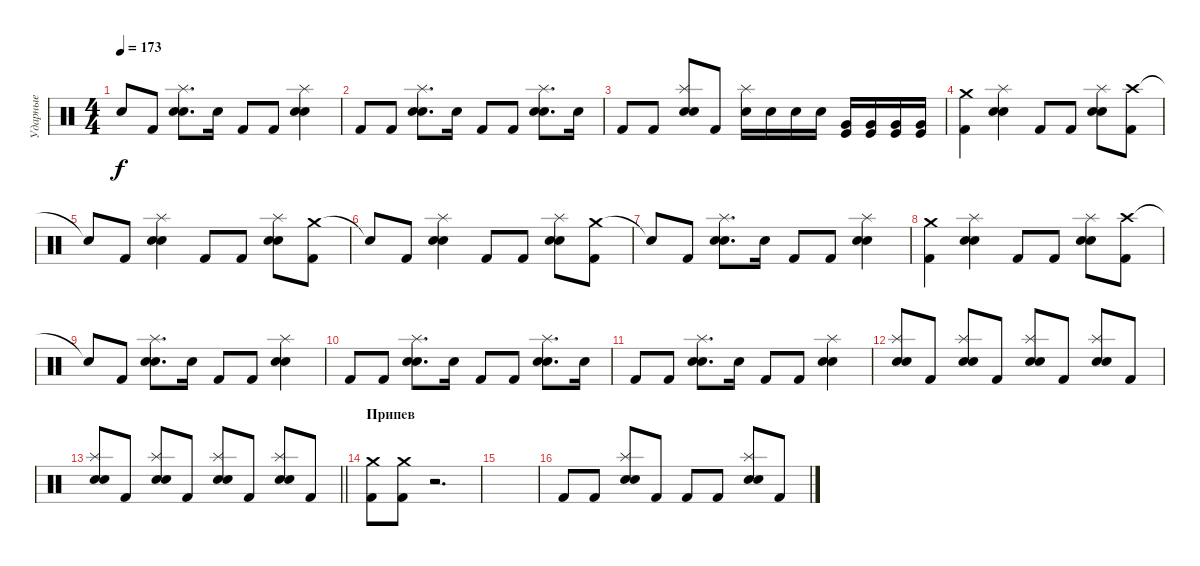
\track ("Ударные" "Ударные") {instrument percussion}
\staff {score}
\articulation defaults
\ts (4 4)
\tempo 173
\clef neutral
\ks c "Snare (hit)"{t}.8{dy f} "Kick (hit) 2".8
("Splash (hit)" "Electric Snare (hit)" "Snare (hit) 2").8{d} "Electric Snare (hit)".16 "Kick (hit) 2".8 "Kick (hit) 2".8 ("Splash (hit)" "Electric Snare (hit)" "Snare (hit) 2").4 |
"Kick (hit) 2".8 "Kick (hit) 2".8 ("Splash (hit)" "Electric Snare (hit)" "Snare (hit) 2").8{d} "Electric Snare (hit)".16 "Kick (hit) 2".8 "Kick (hit) 2".8 ("Splash (hit)" "Electric Snare (hit)" "Snare (hit) 2").8{d} "Electric Snare (hit)".16 |
"Kick (hit) 2".8 "Kick (hit) 2".8 ("Splash (hit)" "Electric Snare (hit)" "Snare (hit) 2").8 "Kick (hit) 2".8 ("Splash (hit)" "Electric Snare (hit)").16 "Electric Snare (hit)".16 "Electric Snare (hit)".16 "Electric Snare (hit)".16 ("Very Low Tom (hit)" "Kick (hit)").16 ("Very Low Tom (hit)" "Kick (hit)").16 ("Very Low Tom (hit)" "Kick (hit)").16 ("Very Low Tom (hit)" "Kick (hit)").16 |
("Crash medium (hit)" "Kick (hit) 2").4 ("Splash (hit)" "Electric Snare (hit)" "Snare (hit) 2").4 "Kick (hit) 2".8 "Kick (hit) 2".8 ("Splash (hit)" "Electric Snare (hit)" "Snare (hit) 2").8 ("Crash high (hit)" "Kick (hit) 2").8 |
"Snare (hit)"{t}.8 "Kick (hit) 2".8 ("Splash (hit)" "Electric Snare (hit)" "Snare (hit) 2").4 "Kick (hit) 2".8 "Kick (hit) 2".8 ("Splash (hit)" "Electric Snare (hit)" "Snare (hit) 2").8 ("Crash medium (hit)" "Kick (hit) 2").8 |
"Snare (hit)"{t}.8 "Kick (hit) 2".8 ("Splash (hit)" "Electric Snare (hit)" "Snare (hit) 2").4 "Kick (hit) 2".8 "Kick (hit) 2".8 ("Splash (hit)" "Electric Snare (hit)" "Snare (hit) 2").8 ("Crash medium (hit)" "Kick (hit) 2").8 |
"Snare (hit)"{t}.8 "Kick (hit) 2".8 ("Splash (hit)" "Electric Snare (hit)" "Snare (hit) 2").8{d} "Electric Snare (hit)".16 "Kick (hit) 2".8 "Kick (hit) 2".8 ("Splash (hit)" "Electric Snare (hit)" "Snare (hit) 2").4 |
("Crash medium (hit)" "Kick (hit) 2").4 ("Splash (hit)" "Electric Snare (hit)" "Snare (hit) 2").4 "Kick (hit) 2".8 "Kick (hit) 2".8 ("Splash (hit)" "Electric Snare (hit)" "Snare (hit) 2").8 ("Crash high (hit)" "Kick (hit) 2").8 |
"Snare (hit)"{t}.8 "Kick (hit) 2".8 ("Splash (hit)" "Electric Snare (hit)" "Snare (hit) 2").8{d} "Electric Snare (hit)".16 "Kick (hit) 2".8 "Kick (hit) 2".8 ("Splash (hit)" "Electric Snare (hit)" "Snare (hit) 2").4 |
"Kick (hit) 2".8 "Kick (hit) 2".8 ("Splash (hit)" "Electric Snare (hit)" "Snare (hit) 2").8{d} "Electric Snare (hit)".16 "Kick (hit) 2".8 "Kick (hit) 2".8 ("Splash (hit)" "Electric Snare (hit)" "Snare (hit) 2").8{d} "Electric Snare (hit)".16 |
"Kick (hit) 2".8 "Kick (hit) 2".8 ("Splash (hit)" "Electric Snare (hit)" "Snare (hit) 2").8{d} "Electric Snare (hit)".16 "Kick (hit) 2".8 "Kick (hit) 2".8 ("Splash (hit)" "Electric Snare (hit)" "Snare (hit) 2").4 |
("Splash (hit)" "Electric Snare (hit)" "Snare (hit) 2").8 "Kick (hit) 2".8 ("Splash (hit)" "Electric Snare (hit)" "Snare (hit) 2").8 "Kick (hit) 2".8 ("Splash (hit)" "Electric Snare (hit)" "Snare (hit) 2").8 "Kick (hit) 2".8 ("Splash (hit)" "Electric Snare (hit)" "Snare (hit) 2").8 "Kick (hit) 2".8 |
\barLineRight lightlight
("Splash (hit)" "Electric Snare (hit)" "Snare (hit) 2").8 "Kick (hit) 2".8 ("Splash (hit)" "Electric Snare (hit)" "Snare (hit) 2").8 "Kick (hit) 2".8 ("Splash (hit)" "Electric Snare (hit)" "Snare (hit) 2").8 "Kick (hit) 2".8 ("Splash (hit)" "Electric Snare (hit)" "Snare (hit) 2").8 "Kick (hit) 2".8 |
\section ("" "Припев")
("Crash medium (hit)" "Kick (hit) 2").8 ("Crash medium (hit)" "Kick (hit) 2").8 r.2{d} |
|
"Kick (hit) 2".8 "Kick (hit) 2".8 ("Splash (hit)" "Electric Snare (hit)" "Snare (hit) 2").8 "Kick (hit) 2".8 "Kick (hit) 2".8 "Kick (hit) 2".8 ("Splash (hit)" "Electric Snare (hit)" "Snare (hit) 2").8 "Kick (hit) 2".8
